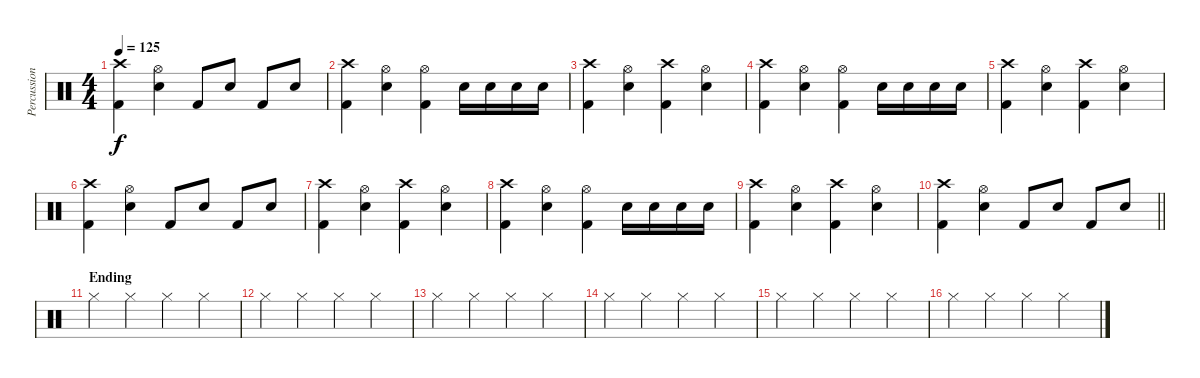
\track ("Percussion" "Percussion") {instrument percussion}
\staff {score}
\articulation defaults
\ts (4 4)
\tempo 125
\clef neutral
\ks c
("Crash high (hit)" "Kick (hit) 2").4{dy f} ("Hi-Hat (open)" "Snare (hit) 2").4 "Kick (hit) 2".8 "Snare (hit) 2".8 "Kick (hit) 2".8 "Snare (hit) 2".8 |
("Crash high (hit)" "Kick (hit) 2").4 ("Hi-Hat (open)" "Snare (hit) 2").4 ("Hi-Hat (open)" "Kick (hit) 2").4 "Snare (hit) 2".16 "Snare (hit) 2".16 "Snare (hit) 2".16 "Snare (hit) 2".16 |
("Crash high (hit)" "Kick (hit) 2").4 ("Hi-Hat (open)" "Snare (hit) 2").4 ("Crash high (hit)" "Kick (hit) 2").4 ("Hi-Hat (open)" "Snare (hit) 2").4 |
("Crash high (hit)" "Kick (hit) 2").4 ("Hi-Hat (open)" "Snare (hit) 2").4 ("Hi-Hat (open)" "Kick (hit) 2").4 "Snare (hit) 2".16 "Snare (hit) 2".16 "Snare (hit) 2".16 "Snare (hit) 2".16 |
("Crash high (hit)" "Kick (hit) 2").4 ("Hi-Hat (open)" "Snare (hit) 2").4 ("Crash high (hit)" "Kick (hit) 2").4 ("Hi-Hat (open)" "Snare (hit) 2").4 |
("Crash high (hit)" "Kick (hit) 2").4 ("Hi-Hat (open)" "Snare (hit) 2").4 "Kick (hit) 2".8 "Snare (hit) 2".8 "Kick (hit) 2".8 "Snare (hit) 2".8 |
("Crash high (hit)" "Kick (hit) 2").4 ("Hi-Hat (open)" "Snare (hit) 2").4 ("Crash high (hit)" "Kick (hit) 2").4 ("Hi-Hat (open)" "Snare (hit) 2").4 |
("Crash high (hit)" "Kick (hit) 2").4 ("Hi-Hat (open)" "Snare (hit) 2").4 ("Hi-Hat (open)" "Kick (hit) 2").4 "Snare (hit) 2".16 "Snare (hit) 2".16 "Snare (hit) 2".16 "Snare (hit) 2".16 |
("Crash high (hit)" "Kick (hit) 2").4 ("Hi-Hat (open)" "Snare (hit) 2").4 ("Crash high (hit)" "Kick (hit) 2").4 ("Hi-Hat (open)" "Snare (hit) 2").4 |
\barLineRight lightlight
("Crash high (hit)" "Kick (hit) 2").4 ("Hi-Hat (open)" "Snare (hit) 2").4 "Kick (hit) 2".8 "Snare (hit) 2".8 "Kick (hit) 2".8 "Snare (hit) 2".8 |
\section ("" "Ending")
"Hi-Hat (closed)".4 "Hi-Hat (closed)".4 "Hi-Hat (closed)".4 "Hi-Hat (closed)".4 |
"Hi-Hat (closed)".4 "Hi-Hat (closed)".4 "Hi-Hat (closed)".4 "Hi-Hat (closed)".4 |
"Hi-Hat (closed)".4 "Hi-Hat (closed)".4 "Hi-Hat (closed)".4 "Hi-Hat (closed)".4 |
"Hi-Hat (closed)".4 "Hi-Hat (closed)".4 "Hi-Hat (closed)".4 "Hi-Hat (closed)".4 |
"Hi-Hat (closed)".4 "Hi-Hat (closed)".4 "Hi-Hat (closed)".4 "Hi-Hat (closed)".4 |
"Hi-Hat (closed)".4 "Hi-Hat (closed)".4 "Hi-Hat (closed)".4 "Hi-Hat (closed)".4
